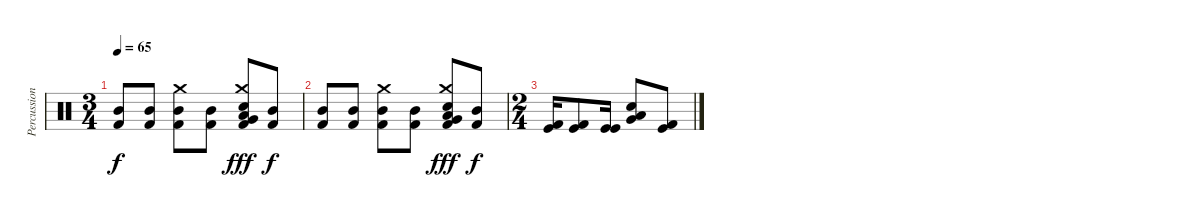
\track ("Percussion" "Percussion") {instrument percussion}
\staff {score}
\articulation defaults
\ts (3 4)
\tempo 65
\clef neutral
\ks c
("Mid Tom (hit)" "Kick (hit) 2").8{dy f} ("Mid Tom (hit)" "Kick (hit) 2").8 ("Crash medium (hit)" "Mid Tom (hit)" "Kick (hit) 2").8 ("Mid Tom (hit)" "Kick (hit) 2").8 ("Crash medium (hit)" "Snare (hit) 2" "Very Low Tom (hit)" "Low Floor Tom (hit)" "Kick (hit) 2").8{dy fff} ("Mid Tom (hit)" "Kick (hit) 2").8{dy f} |
("Mid Tom (hit)" "Kick (hit) 2").8 ("Mid Tom (hit)" "Kick (hit) 2").8 ("Crash medium (hit)" "Mid Tom (hit)" "Kick (hit) 2").8 ("Mid Tom (hit)" "Kick (hit) 2").8 ("Crash medium (hit)" "Snare (hit) 2" "Very Low Tom (hit)" "Low Floor Tom (hit)" "Kick (hit) 2").8{dy fff} ("Mid Tom (hit)" "Kick (hit) 2").8{dy f} |
\ts (2 4)
("Kick (hit)" "Kick (hit) 2").16 ("Kick (hit)" "Kick (hit) 2").8 ("Kick (hit)" "Kick (hit)").16 ("Very Low Tom (hit)" "Low Floor Tom (hit)" "Snare (hit) 2").8 ("Kick (hit) 2" "Kick (hit)").8
